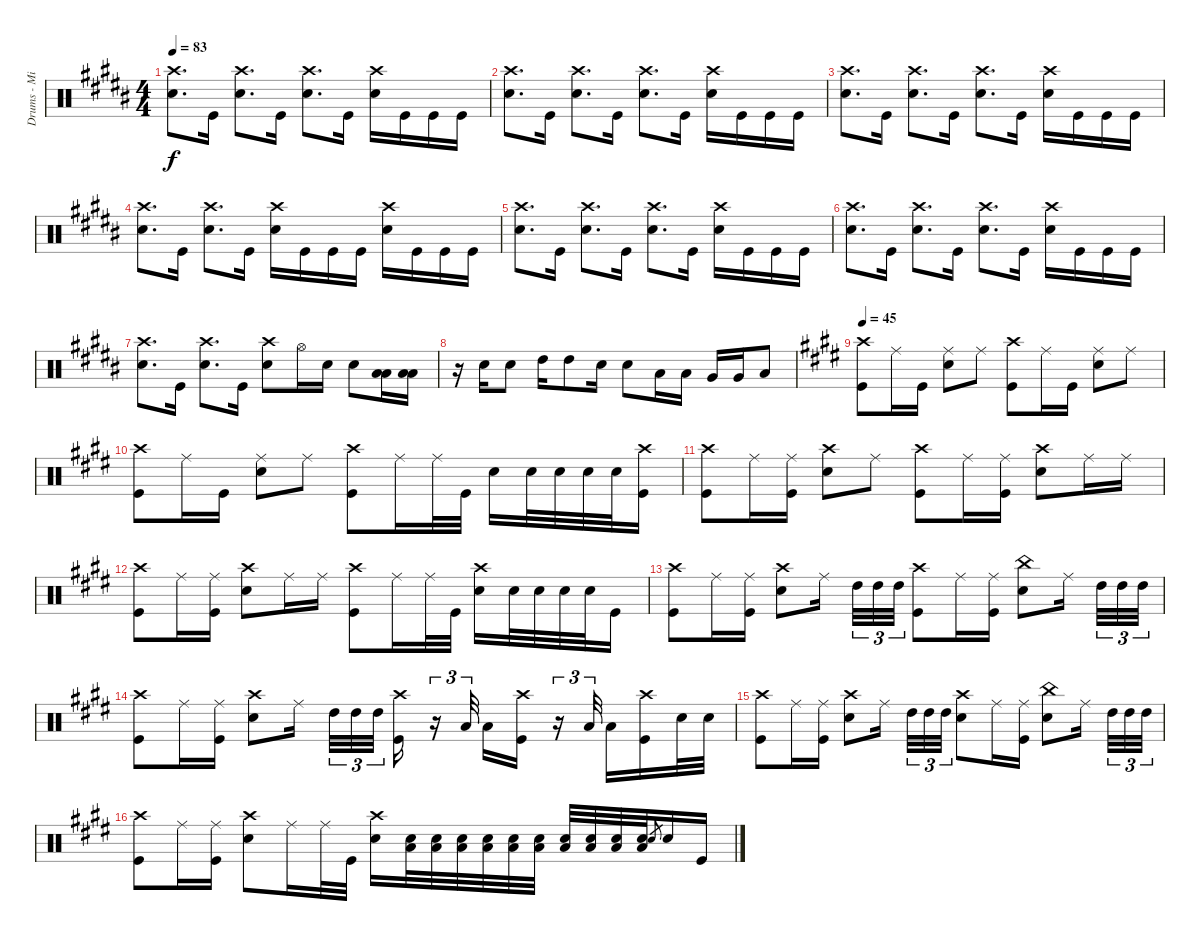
\track ("Drums - Mike Portnoy" "Drums - Mi") {instrument percussion}
\staff {score}
\articulation defaults
\ts (4 4)
\tempo 83
\clef neutral
\ks b
("Crash high (hit)" "Snare (hit) 2").8{d dy f} "Kick (hit)".16 ("Crash high (hit)" "Snare (hit) 2").8{d} "Kick (hit)".16 ("Crash high (hit)" "Snare (hit) 2").8{d} "Kick (hit)".16 ("Crash high (hit)" "Snare (hit) 2").16 "Kick (hit)".16 "Kick (hit)".16 "Kick (hit)".16 |
("Crash high (hit)" "Snare (hit) 2").8{d} "Kick (hit)".16 ("Crash high (hit)" "Snare (hit) 2").8{d} "Kick (hit)".16 ("Crash high (hit)" "Snare (hit) 2").8{d} "Kick (hit)".16 ("Crash high (hit)" "Snare (hit) 2").16 "Kick (hit)".16 "Kick (hit)".16 "Kick (hit)".16 |
("Crash high (hit)" "Snare (hit) 2").8{d} "Kick (hit)".16 ("Crash high (hit)" "Snare (hit) 2").8{d} "Kick (hit)".16 ("Crash high (hit)" "Snare (hit) 2").8{d} "Kick (hit)".16 ("Crash high (hit)" "Snare (hit) 2").16 "Kick (hit)".16 "Kick (hit)".16 "Kick (hit)".16 |
("Crash high (hit)" "Snare (hit) 2").8{d} "Kick (hit)".16 ("Crash high (hit)" "Snare (hit) 2").8{d} "Kick (hit)".16 ("Crash high (hit)" "Snare (hit) 2").16 "Kick (hit)".16 "Kick (hit)".16 "Kick (hit)".16 ("Crash high (hit)" "Snare (hit) 2").16 "Kick (hit)".16 "Kick (hit)".16 "Kick (hit)".16 |
("Crash high (hit)" "Snare (hit) 2").8{d} "Kick (hit)".16 ("Crash high (hit)" "Snare (hit) 2").8{d} "Kick (hit)".16 ("Crash high (hit)" "Snare (hit) 2").8{d} "Kick (hit)".16 ("Crash high (hit)" "Snare (hit) 2").16 "Kick (hit)".16 "Kick (hit)".16 "Kick (hit)".16 |
("Crash high (hit)" "Snare (hit) 2").8{d} "Kick (hit)".16 ("Crash high (hit)" "Snare (hit) 2").8{d} "Kick (hit)".16 ("Crash high (hit)" "Snare (hit) 2").8{d} "Kick (hit)".16 ("Crash high (hit)" "Snare (hit) 2").16 "Kick (hit)".16 "Kick (hit)".16 "Kick (hit)".16 |
("Crash high (hit)" "Snare (hit) 2").8{d} "Kick (hit)".16 ("Crash high (hit)" "Snare (hit) 2").8{d} "Kick (hit)".16 ("Crash high (hit)" "Snare (hit) 2").8 "Hi-Hat (open)".16 "Snare (hit) 2".16 "Snare (hit) 2".8 ("Low Floor Tom (hit)" "Low Tom (hit)").16 ("Low Floor Tom (hit)" "Low Tom (hit)").16 |
r.16 "Snare (hit) 2".16 "Snare (hit) 2".8 "High Tom (hit)".16 "High Tom (hit)".8 "Snare (hit) 2".16 "Snare (hit) 2".8 "Low Tom (hit)".16 "Low Tom (hit)".16 "Very Low Tom (hit)".16 "Very Low Tom (hit)".16 "Low Floor Tom (hit)".8 |
\tempo 45
\ks e
("Crash high (hit)" "Kick (hit)").8 "Ride (middle)".16 "Kick (hit)".16 ("Ride (middle)" "Snare (hit) 2").8 "Ride (middle)".8 ("Crash high (hit)" "Kick (hit)").8 "Ride (middle)".16 "Kick (hit)".16 ("Ride (middle)" "Snare (hit) 2").8 "Ride (middle)".8 |
("Crash high (hit)" "Kick (hit)").8 "Ride (middle)".16 "Kick (hit)".16 ("Ride (middle)" "Snare (hit) 2").8 "Ride (middle)".8 ("Crash high (hit)" "Kick (hit)").8 "Ride (middle)".16 "Ride (middle)".32 "Kick (hit)".32 "Snare (hit) 2".16 "Snare (hit) 2".32 "Snare (hit) 2".32 "Snare (hit) 2".32 "Snare (hit) 2".32 ("Crash high (hit)" "Kick (hit)").16 |
("Crash high (hit)" "Kick (hit)").8 "Ride (middle)".16 ("Ride (middle)" "Kick (hit)").16 ("Crash high (hit)" "Snare (hit) 2").8 "Ride (middle)".8 ("Crash high (hit)" "Kick (hit)").8 "Ride (middle)".16 ("Ride (middle)" "Kick (hit)").16 ("Crash high (hit)" "Snare (hit) 2").8 "Ride (middle)".16 "Ride (middle)".16 |
("Crash high (hit)" "Kick (hit)").8 "Ride (middle)".16 ("Ride (middle)" "Kick (hit)").16 ("Crash high (hit)" "Snare (hit) 2").8 "Ride (middle)".16 "Ride (middle)".16 ("Crash high (hit)" "Kick (hit)").8 "Ride (middle)".16 "Ride (middle)".32 "Kick (hit)".32 ("Crash high (hit)" "Snare (hit) 2").16 "Snare (hit) 2".32 "Snare (hit) 2".32 "Snare (hit) 2".32 "Snare (hit) 2".32 "Kick (hit)".16 |
("Crash high (hit)" "Kick (hit)").8 "Ride (middle)".16 ("Ride (middle)" "Kick (hit)").16 ("Crash high (hit)" "Snare (hit) 2").8 "Ride (middle)".16{beam splitsecondary} "High Tom (hit)".32{tu (3 2)} "High Tom (hit)".32{tu (3 2)} "High Tom (hit)".32{tu (3 2)} ("Crash high (hit)" "Kick (hit)").8 "Ride (middle)".16 ("Ride (middle)" "Kick (hit)").16 ("China (hit)" "Snare (hit) 2").8 "Ride (middle)".16{beam splitsecondary} "High Tom (hit)".32{tu (3 2)} "High Tom (hit)".32{tu (3 2)} "High Tom (hit)".32{tu (3 2)} |
("Crash high (hit)" "Kick (hit)").8 "Ride (middle)".16 ("Ride (middle)" "Kick (hit)").16 ("Crash high (hit)" "Snare (hit) 2").8 "Ride (middle)".16{beam splitsecondary} "High Tom (hit)".32{tu (3 2)} "High Tom (hit)".32{tu (3 2)} "High Tom (hit)".32{tu (3 2)} ("Crash high (hit)" "Kick (hit)").16 r.16{tu (3 2)} "Low Tom (hit)".32{tu (3 2) beam splitsecondary} "Low Tom (hit)".16 ("Crash high (hit)" "Kick (hit)").16 r.16{tu (3 2)} "Low Tom (hit)".32{tu (3 2) beam splitsecondary} "Low Tom (hit)".16 ("Crash high (hit)" "Kick (hit)").16 "Snare (hit) 2".32 "Snare (hit) 2".32 |
("Crash high (hit)" "Kick (hit)").8 "Ride (middle)".16 ("Ride (middle)" "Kick (hit)").16 ("Crash high (hit)" "Snare (hit) 2").8 "Ride (middle)".16{beam splitsecondary} "High Tom (hit)".32{tu (3 2)} "High Tom (hit)".32{tu (3 2)} "High Tom (hit)".32{tu (3 2)} ("Crash high (hit)" "Snare (hit) 2").8 "Ride (middle)".16 ("Ride (middle)" "Kick (hit)").16 ("China (hit)" "Snare (hit) 2").8 "Ride (middle)".16{beam splitsecondary} "High Tom (hit)".32{tu (3 2)} "High Tom (hit)".32{tu (3 2)} "High Tom (hit)".32{tu (3 2)} |
("Crash high (hit)" "Kick (hit)").8 "Ride (middle)".16 ("Ride (middle)" "Kick (hit)").16 ("Crash high (hit)" "Snare (hit) 2").8 "Ride (middle)".16 "Ride (middle)".32 "Kick (hit)".32 ("Crash high (hit)" "Snare (hit) 2").16 ("Low Floor Tom (hit)" "Snare (hit) 2").32 ("Low Floor Tom (hit)" "Snare (hit) 2").32 ("Low Floor Tom (hit)" "Snare (hit) 2").32 ("Low Floor Tom (hit)" "Snare (hit) 2").32 ("Low Floor Tom (hit)" "Snare (hit) 2").32 ("Low Floor Tom (hit)" "Snare (hit) 2").32 ("Low Floor Tom (hit)" "Snare (hit) 2").32 ("Low Floor Tom (hit)" "Snare (hit) 2").32 ("Low Floor Tom (hit)" "Snare (hit) 2").32 ("Low Floor Tom (hit)" "Snare (hit) 2").32 "Snare (hit) 2".8{gr} "Snare (hit) 2".16 "Kick (hit)".16
